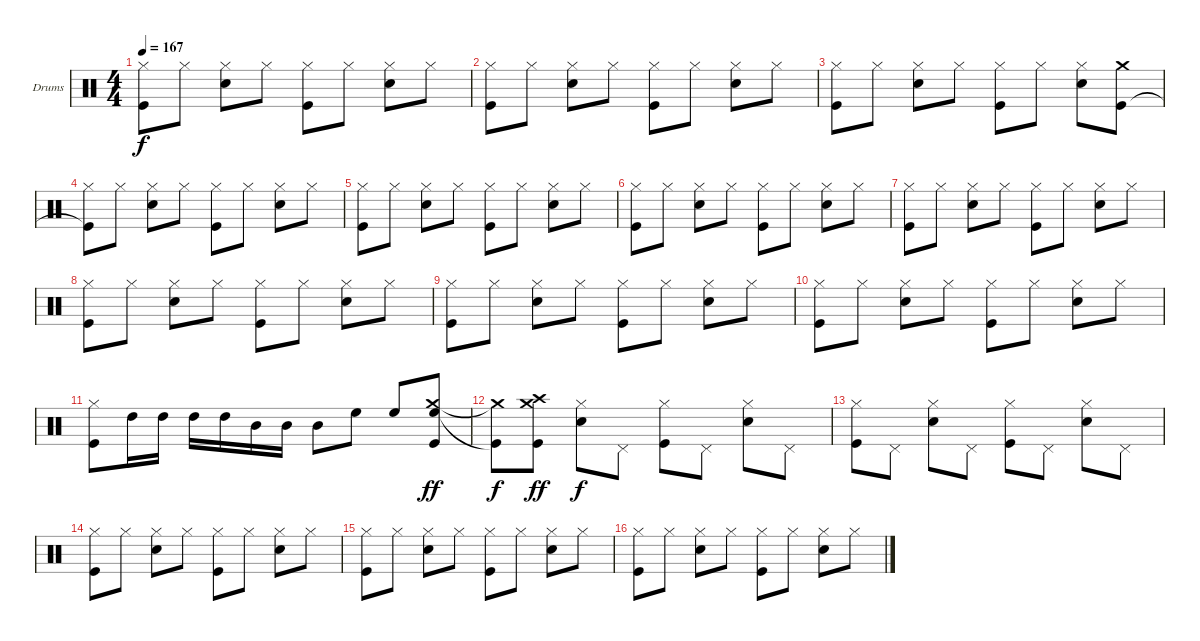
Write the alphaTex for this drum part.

\bracketExtendMode groupsimilarinstruments
\firstSystemTrackNameOrientation horizontal
\otherSystemsTrackNameOrientation horizontal
\track ("Drumkit" "Drums") {instrument percussion}
\staff {score}
\articulation defaults
\ts (4 4)
\tempo 167
\clef neutral
\ks c
("Hi-Hat (closed)" "Kick (hit)").8{dy f} "Hi-Hat (closed)".8 ("Hi-Hat (closed)" "Snare (hit) 2").8 "Hi-Hat (closed)".8 ("Hi-Hat (closed)" "Kick (hit)").8 "Hi-Hat (closed)".8 ("Hi-Hat (closed)" "Snare (hit) 2").8 "Hi-Hat (closed)".8 |
("Hi-Hat (closed)" "Kick (hit)").8 "Hi-Hat (closed)".8 ("Hi-Hat (closed)" "Snare (hit) 2").8 "Hi-Hat (closed)".8 ("Hi-Hat (closed)" "Kick (hit)").8 "Hi-Hat (closed)".8 ("Hi-Hat (closed)" "Snare (hit) 2").8 "Hi-Hat (closed)".8 |
("Hi-Hat (closed)" "Kick (hit)").8 "Hi-Hat (closed)".8 ("Hi-Hat (closed)" "Snare (hit) 2").8 "Hi-Hat (closed)".8 ("Hi-Hat (closed)" "Kick (hit)").8 "Hi-Hat (closed)".8 ("Hi-Hat (closed)" "Snare (hit) 2").8 ("Crash medium (hit)" "Kick (hit)").8 |
("Hi-Hat (closed)" "Kick (hit)"{t}).8 "Hi-Hat (closed)".8 ("Hi-Hat (closed)" "Snare (hit) 2").8 "Hi-Hat (closed)".8 ("Hi-Hat (closed)" "Kick (hit)").8 "Hi-Hat (closed)".8 ("Hi-Hat (closed)" "Snare (hit) 2").8 "Hi-Hat (closed)".8 |
("Hi-Hat (closed)" "Kick (hit)").8 "Hi-Hat (closed)".8 ("Hi-Hat (closed)" "Snare (hit) 2").8 "Hi-Hat (closed)".8 ("Hi-Hat (closed)" "Kick (hit)").8 "Hi-Hat (closed)".8 ("Hi-Hat (closed)" "Snare (hit) 2").8 "Hi-Hat (closed)".8 |
("Hi-Hat (closed)" "Kick (hit)").8 "Hi-Hat (closed)".8 ("Hi-Hat (closed)" "Snare (hit) 2").8 "Hi-Hat (closed)".8 ("Hi-Hat (closed)" "Kick (hit)").8 "Hi-Hat (closed)".8 ("Hi-Hat (closed)" "Snare (hit) 2").8 "Hi-Hat (closed)".8 |
("Hi-Hat (closed)" "Kick (hit)").8 "Hi-Hat (closed)".8 ("Hi-Hat (closed)" "Snare (hit) 2").8 "Hi-Hat (closed)".8 ("Hi-Hat (closed)" "Kick (hit)").8 "Hi-Hat (closed)".8 ("Hi-Hat (closed)" "Snare (hit) 2").8 "Hi-Hat (closed)".8 |
("Hi-Hat (closed)" "Kick (hit)").8 "Hi-Hat (closed)".8 ("Hi-Hat (closed)" "Snare (hit) 2").8 "Hi-Hat (closed)".8 ("Hi-Hat (closed)" "Kick (hit)").8 "Hi-Hat (closed)".8 ("Hi-Hat (closed)" "Snare (hit) 2").8 "Hi-Hat (closed)".8 |
("Hi-Hat (closed)" "Kick (hit)").8 "Hi-Hat (closed)".8 ("Hi-Hat (closed)" "Snare (hit) 2").8 "Hi-Hat (closed)".8 ("Hi-Hat (closed)" "Kick (hit)").8 "Hi-Hat (closed)".8 ("Hi-Hat (closed)" "Snare (hit) 2").8 "Hi-Hat (closed)".8 |
("Hi-Hat (closed)" "Kick (hit)").8 "Hi-Hat (closed)".8 ("Hi-Hat (closed)" "Snare (hit) 2").8 "Hi-Hat (closed)".8 ("Hi-Hat (closed)" "Kick (hit)").8 "Hi-Hat (closed)".8 ("Hi-Hat (closed)" "Snare (hit) 2").8 "Hi-Hat (closed)".8 |
("Hi-Hat (closed)" "Kick (hit)").8 "High Tom (hit)".16 "High Tom (hit)".16 "High Tom (hit)".16 "High Tom (hit)".16 "Mid Tom (hit)".16 "Mid Tom (hit)".16 "Mid Tom (hit)".8 "High Floor Tom (hit)".8 "High Floor Tom (hit)".8 ("Crash medium (hit)" "High Floor Tom (hit)" "Kick (hit)").8{dy ff} |
("Crash medium (hit)"{t} "Kick (hit)"{t}).8{dy f} ("Crash medium (hit)" "Crash high (hit)" "Kick (hit)").8{dy ff} ("Hi-Hat (closed)" "Snare (hit) 2").8{dy f} "Pedal Hi-Hat (hit)".8 ("Hi-Hat (closed)" "Kick (hit)").8 "Pedal Hi-Hat (hit)".8 ("Hi-Hat (closed)" "Snare (hit) 2").8 "Pedal Hi-Hat (hit)".8 |
("Hi-Hat (closed)" "Kick (hit)").8 "Pedal Hi-Hat (hit)".8 ("Hi-Hat (closed)" "Snare (hit) 2").8 "Pedal Hi-Hat (hit)".8 ("Hi-Hat (closed)" "Kick (hit)").8 "Pedal Hi-Hat (hit)".8 ("Hi-Hat (closed)" "Snare (hit) 2").8 "Pedal Hi-Hat (hit)".8 |
("Hi-Hat (closed)" "Kick (hit)").8 "Hi-Hat (closed)".8 ("Hi-Hat (closed)" "Snare (hit) 2").8 "Hi-Hat (closed)".8 ("Hi-Hat (closed)" "Kick (hit)").8 "Hi-Hat (closed)".8 ("Hi-Hat (closed)" "Snare (hit) 2").8 "Hi-Hat (closed)".8 |
("Hi-Hat (closed)" "Kick (hit)").8 "Hi-Hat (closed)".8 ("Hi-Hat (closed)" "Snare (hit) 2").8 "Hi-Hat (closed)".8 ("Hi-Hat (closed)" "Kick (hit)").8 "Hi-Hat (closed)".8 ("Hi-Hat (closed)" "Snare (hit) 2").8 "Hi-Hat (closed)".8 |
("Hi-Hat (closed)" "Kick (hit)").8 "Hi-Hat (closed)".8 ("Hi-Hat (closed)" "Snare (hit) 2").8 "Hi-Hat (closed)".8 ("Hi-Hat (closed)" "Kick (hit)").8 "Hi-Hat (closed)".8 ("Hi-Hat (closed)" "Snare (hit) 2").8 "Hi-Hat (closed)".8
